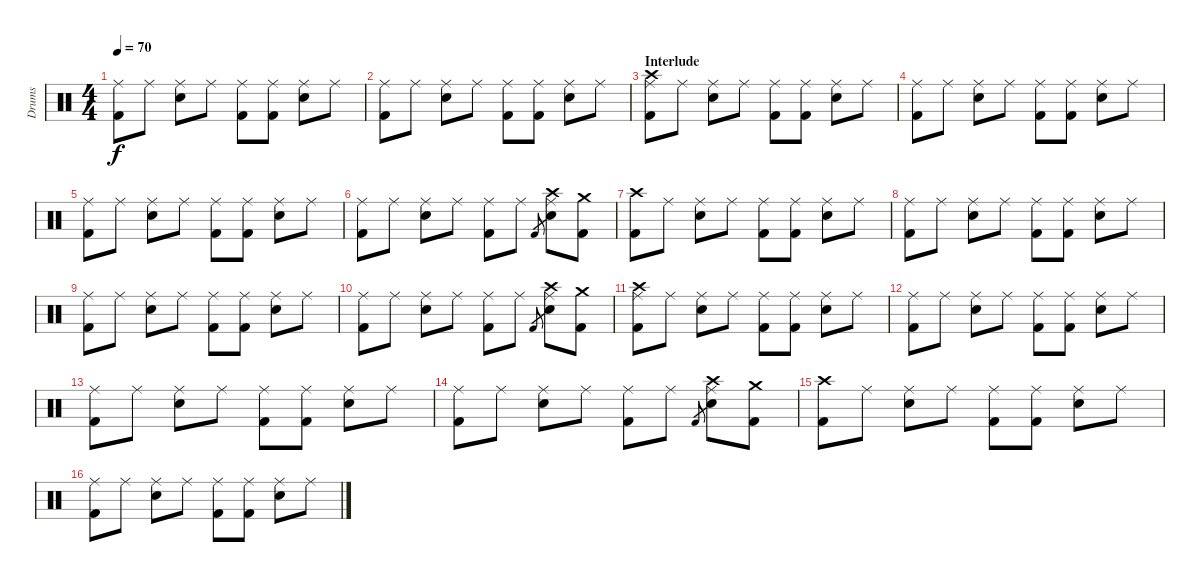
\track ("Drums" "Drums") {instrument percussion}
\staff {score}
\articulation defaults
\ts (4 4)
\tempo 70
\clef neutral
\ks c
("Ride (middle)" "Kick (hit) 2").8{dy f} "Ride (middle)".8 ("Ride (middle)" "Electric Snare (hit)").8 "Ride (middle)".8 ("Ride (middle)" "Kick (hit) 2").8 ("Ride (middle)" "Kick (hit) 2").8 ("Ride (middle)" "Electric Snare (hit)").8 "Ride (middle)".8 |
("Ride (middle)" "Kick (hit) 2").8 "Ride (middle)".8 ("Ride (middle)" "Electric Snare (hit)").8 "Ride (middle)".8 ("Ride (middle)" "Kick (hit) 2").8 ("Ride (middle)" "Kick (hit) 2").8 ("Ride (middle)" "Electric Snare (hit)").8 "Ride (middle)".8 |
\section ("" "Interlude")
("Crash high (hit)" "Ride (middle)" "Kick (hit) 2").8 "Ride (middle)".8 ("Ride (middle)" "Electric Snare (hit)").8 "Ride (middle)".8 ("Ride (middle)" "Kick (hit) 2").8 ("Ride (middle)" "Kick (hit) 2").8 ("Ride (middle)" "Electric Snare (hit)").8 "Ride (middle)".8 |
("Ride (middle)" "Kick (hit) 2").8 "Ride (middle)".8 ("Ride (middle)" "Electric Snare (hit)").8 "Ride (middle)".8 ("Ride (middle)" "Kick (hit) 2").8 ("Ride (middle)" "Kick (hit) 2").8 ("Ride (middle)" "Electric Snare (hit)").8 "Ride (middle)".8 |
("Ride (middle)" "Kick (hit) 2").8 "Ride (middle)".8 ("Ride (middle)" "Electric Snare (hit)").8 "Ride (middle)".8 ("Ride (middle)" "Kick (hit) 2").8 ("Ride (middle)" "Kick (hit) 2").8 ("Ride (middle)" "Electric Snare (hit)").8 "Ride (middle)".8 |
("Ride (middle)" "Kick (hit) 2").8 "Ride (middle)".8 ("Ride (middle)" "Electric Snare (hit)").8 "Ride (middle)".8 ("Ride (middle)" "Kick (hit) 2").8 "Ride (middle)".8 "Kick (hit) 2".8{gr} ("Crash high (hit)" "Ride (middle)" "Electric Snare (hit)").8 ("Crash medium (hit)" "Kick (hit) 2").8 |
("Crash high (hit)" "Kick (hit) 2").8 "Ride (middle)".8 ("Ride (middle)" "Electric Snare (hit)").8 "Ride (middle)".8 ("Ride (middle)" "Kick (hit) 2").8 ("Ride (middle)" "Kick (hit) 2").8 ("Ride (middle)" "Electric Snare (hit)").8 "Ride (middle)".8 |
("Ride (middle)" "Kick (hit) 2").8 "Ride (middle)".8 ("Ride (middle)" "Electric Snare (hit)").8 "Ride (middle)".8 ("Ride (middle)" "Kick (hit) 2").8 ("Ride (middle)" "Kick (hit) 2").8 ("Ride (middle)" "Electric Snare (hit)").8 "Ride (middle)".8 |
("Ride (middle)" "Kick (hit) 2").8 "Ride (middle)".8 ("Ride (middle)" "Electric Snare (hit)").8 "Ride (middle)".8 ("Ride (middle)" "Kick (hit) 2").8 ("Ride (middle)" "Kick (hit) 2").8 ("Ride (middle)" "Electric Snare (hit)").8 "Ride (middle)".8 |
("Ride (middle)" "Kick (hit) 2").8 "Ride (middle)".8 ("Ride (middle)" "Electric Snare (hit)").8 "Ride (middle)".8 ("Ride (middle)" "Kick (hit) 2").8 "Ride (middle)".8 "Kick (hit) 2".8{gr} ("Crash high (hit)" "Ride (middle)" "Electric Snare (hit)").8 ("Crash medium (hit)" "Kick (hit) 2").8 |
("Crash high (hit)" "Ride (middle)" "Kick (hit) 2").8 "Ride (middle)".8 ("Ride (middle)" "Electric Snare (hit)").8 "Ride (middle)".8 ("Ride (middle)" "Kick (hit) 2").8 ("Ride (middle)" "Kick (hit) 2").8 ("Ride (middle)" "Electric Snare (hit)").8 "Ride (middle)".8 |
("Ride (middle)" "Kick (hit) 2").8 "Ride (middle)".8 ("Ride (middle)" "Electric Snare (hit)").8 "Ride (middle)".8 ("Ride (middle)" "Kick (hit) 2").8 ("Ride (middle)" "Kick (hit) 2").8 ("Ride (middle)" "Electric Snare (hit)").8 "Ride (middle)".8 |
("Ride (middle)" "Kick (hit) 2").8 "Ride (middle)".8 ("Ride (middle)" "Electric Snare (hit)").8 "Ride (middle)".8 ("Ride (middle)" "Kick (hit) 2").8 ("Ride (middle)" "Kick (hit) 2").8 ("Ride (middle)" "Electric Snare (hit)").8 "Ride (middle)".8 |
("Ride (middle)" "Kick (hit) 2").8 "Ride (middle)".8 ("Ride (middle)" "Electric Snare (hit)").8 "Ride (middle)".8 ("Ride (middle)" "Kick (hit) 2").8 "Ride (middle)".8 "Kick (hit) 2".8{gr} ("Crash high (hit)" "Ride (middle)" "Electric Snare (hit)").8 ("Crash medium (hit)" "Kick (hit) 2").8 |
("Crash high (hit)" "Kick (hit) 2").8 "Ride (middle)".8 ("Ride (middle)" "Electric Snare (hit)").8 "Ride (middle)".8 ("Ride (middle)" "Kick (hit) 2").8 ("Ride (middle)" "Kick (hit) 2").8 ("Ride (middle)" "Electric Snare (hit)").8 "Ride (middle)".8 |
("Ride (middle)" "Kick (hit) 2").8 "Ride (middle)".8 ("Ride (middle)" "Electric Snare (hit)").8 "Ride (middle)".8 ("Ride (middle)" "Kick (hit) 2").8 ("Ride (middle)" "Kick (hit) 2").8 ("Ride (middle)" "Electric Snare (hit)").8 "Ride (middle)".8
